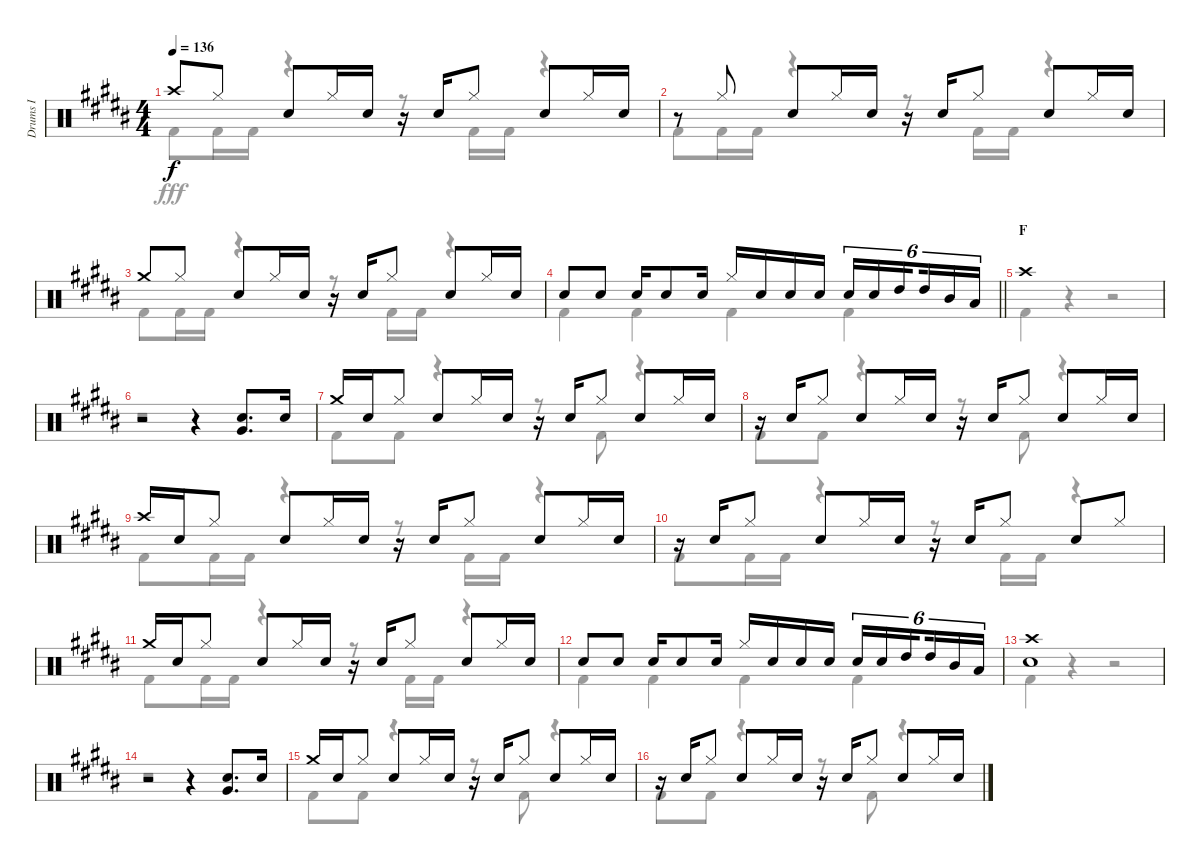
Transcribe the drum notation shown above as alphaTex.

\track ("Drums I" "Drums I") {instrument percussion}
\staff {score}
\articulation defaults
\voice
\ts (4 4)
\tempo 136
\clef neutral
\ks b "Crash high (hit)".8{dy f} "Hi-Hat (closed)".8 "Snare (hit) 2".8 "Hi-Hat (closed)".16 "Snare (hit) 2".16
r.16 "Snare (hit) 2".16 "Hi-Hat (closed)".8 "Snare (hit) 2".8 "Hi-Hat (closed)".16 "Snare (hit) 2".16 |
r.8 "Hi-Hat (closed)".8 "Snare (hit) 2".8 "Hi-Hat (closed)".16 "Snare (hit) 2".16 r.16 "Snare (hit) 2".16 "Hi-Hat (closed)".8 "Snare (hit) 2".8 "Hi-Hat (closed)".16 "Snare (hit) 2".16 |
"Crash medium (hit)".8 "Hi-Hat (closed)".8 "Snare (hit) 2".8 "Hi-Hat (closed)".16 "Snare (hit) 2".16 r.16 "Snare (hit) 2".16 "Hi-Hat (closed)".8 "Snare (hit) 2".8 "Hi-Hat (closed)".16 "Snare (hit) 2".16 |
\barLineRight lightlight "Snare (hit) 2".8 "Snare (hit) 2".8 "Snare (hit) 2".16 "Snare (hit) 2".8 "Snare (hit) 2".16 "Hi-Hat (closed)".16 "Snare (hit) 2".16 "Snare (hit) 2".16 "Snare (hit) 2".16 "Snare (hit) 2".16{tu (6 4)} "Snare (hit) 2".16{tu (6 4)} "High Tom (hit)".16{tu (6 4) beam splitsecondary} "High Tom (hit)".16{tu (6 4)} "Mid Tom (hit)".16{tu (6 4)} "Low Tom (hit)".16{tu (6 4)}
|
\section ("" "F")
"Crash high (hit)".1 |
r.2 r.4 ("Snare (hit) 2" "Very Low Tom (hit)").8{d} "Snare (hit) 2".16 |
"Crash medium (hit)".16 "Snare (hit) 2".16 "Hi-Hat (closed)".8 "Snare (hit) 2".8 "Hi-Hat (closed)".16 "Snare (hit) 2".16 r.16 "Snare (hit) 2".16 "Hi-Hat (closed)".8 "Snare (hit) 2".8 "Hi-Hat (closed)".16 "Snare (hit) 2".16 |
r.16 "Snare (hit) 2".16 "Hi-Hat (closed)".8 "Snare (hit) 2".8 "Hi-Hat (closed)".16 "Snare (hit) 2".16 r.16 "Snare (hit) 2".16 "Hi-Hat (closed)".8 "Snare (hit) 2".8 "Hi-Hat (closed)".16 "Snare (hit) 2".16 |
"Crash high (hit)".16 "Snare (hit) 2".16 "Hi-Hat (closed)".8 "Snare (hit) 2".8 "Hi-Hat (closed)".16 "Snare (hit) 2".16 r.16 "Snare (hit) 2".16 "Hi-Hat (closed)".8 "Snare (hit) 2".8 "Hi-Hat (closed)".16 "Snare (hit) 2".16 |
r.16 "Snare (hit) 2".16 "Hi-Hat (closed)".8 "Snare (hit) 2".8 "Hi-Hat (closed)".16 "Snare (hit) 2".16 r.16 "Snare (hit) 2".16 "Hi-Hat (closed)".8 "Snare (hit) 2".8 "Hi-Hat (closed)".8 |
"Crash medium (hit)".16 "Snare (hit) 2".16 "Hi-Hat (closed)".8 "Snare (hit) 2".8 "Hi-Hat (closed)".16 "Snare (hit) 2".16 r.16 "Snare (hit) 2".16 "Hi-Hat (closed)".8 "Snare (hit) 2".8 "Hi-Hat (closed)".16 "Snare (hit) 2".16 |
"Snare (hit) 2".8 "Snare (hit) 2".8 "Snare (hit) 2".16 "Snare (hit) 2".8 "Snare (hit) 2".16 "Hi-Hat (closed)".16 "Snare (hit) 2".16 "Snare (hit) 2".16 "Snare (hit) 2".16 "Snare (hit) 2".16{tu (6 4)} "Snare (hit) 2".16{tu (6 4)} "High Tom (hit)".16{tu (6 4) beam splitsecondary} "High Tom (hit)".16{tu (6 4)} "Mid Tom (hit)".16{tu (6 4)} "Low Tom (hit)".16{tu (6 4)} |
("Crash high (hit)" "Snare (hit) 2").1 |
r.2 r.4 ("Snare (hit) 2" "Very Low Tom (hit)").8{d} "Snare (hit) 2".16 |
"Crash medium (hit)".16 "Snare (hit) 2".16 "Hi-Hat (closed)".8 "Snare (hit) 2".8 "Hi-Hat (closed)".16 "Snare (hit) 2".16 r.16 "Snare (hit) 2".16 "Hi-Hat (closed)".8 "Snare (hit) 2".8 "Hi-Hat (closed)".16 "Snare (hit) 2".16 |
r.16 "Snare (hit) 2".16 "Hi-Hat (closed)".8 "Snare (hit) 2".8 "Hi-Hat (closed)".16 "Snare (hit) 2".16 r.16 "Snare (hit) 2".16 "Hi-Hat (closed)".8 "Snare (hit) 2".8 "Hi-Hat (closed)".16 "Snare (hit) 2".16
\voice
\clef neutral
\ottava regular
\simile none
\ks b "Kick (hit) 2".8{dy fff} "Kick (hit) 2".16 "Kick (hit) 2".16
r.4 r.8 "Kick (hit) 2".16 "Kick (hit) 2".16 r.4 |
"Kick (hit) 2".8 "Kick (hit) 2".16 "Kick (hit) 2".16 r.4 r.8 "Kick (hit) 2".16 "Kick (hit) 2".16 r.4 |
"Kick (hit) 2".8 "Kick (hit) 2".16 "Kick (hit) 2".16 r.4 r.8 "Kick (hit) 2".16 "Kick (hit) 2".16 r.4 |
\barLineRight lightlight "Kick (hit) 2".4 "Kick (hit) 2".4 "Kick (hit) 2".4 "Kick (hit) 2".4
|
"Kick (hit) 2".4 r.4 r.2 |
r.1 |
"Kick (hit) 2".8 "Kick (hit) 2".8 r.4 r.8 "Kick (hit) 2".8 r.4 |
"Kick (hit) 2".8 "Kick (hit) 2".8 r.4 r.8 "Kick (hit) 2".8 r.4 |
"Kick (hit) 2".8 "Kick (hit) 2".16 "Kick (hit) 2".16 r.4 r.8 "Kick (hit) 2".16 "Kick (hit) 2".16 r.4 |
"Kick (hit) 2".8 "Kick (hit) 2".16 "Kick (hit) 2".16 r.4 r.8 "Kick (hit) 2".16 "Kick (hit) 2".16 r.4 |
"Kick (hit) 2".8 "Kick (hit) 2".16 "Kick (hit) 2".16 r.4 r.8 "Kick (hit) 2".16 "Kick (hit) 2".16 r.4 |
"Kick (hit) 2".4 "Kick (hit) 2".4 "Kick (hit) 2".4 "Kick (hit) 2".4 |
"Kick (hit) 2".4 r.4 r.2 |
r.1 |
"Kick (hit) 2".8 "Kick (hit) 2".8 r.4 r.8 "Kick (hit) 2".8 r.4 |
"Kick (hit) 2".8 "Kick (hit) 2".8 r.4 r.8 "Kick (hit) 2".8 r.4
